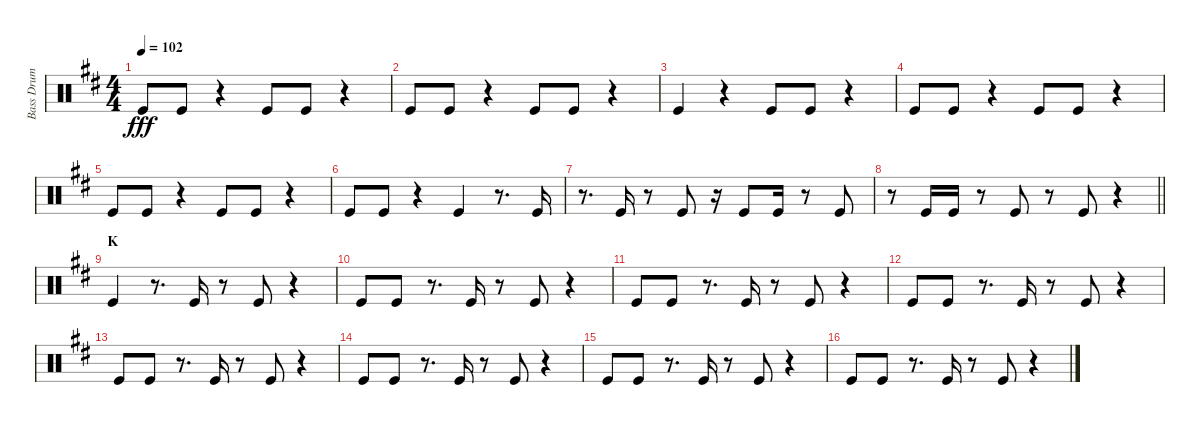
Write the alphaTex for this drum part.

\track ("Bass Drum" "Bass Drum") {instrument percussion}
\staff {score}
\articulation defaults
\ts (4 4)
\tempo 102
\clef neutral
\ks d "Kick (hit)".8{dy fff} "Kick (hit)".8
r.4 "Kick (hit)".8 "Kick (hit)".8 r.4 |
"Kick (hit)".8 "Kick (hit)".8 r.4 "Kick (hit)".8 "Kick (hit)".8 r.4 |
"Kick (hit)".4 r.4 "Kick (hit)".8 "Kick (hit)".8 r.4 |
"Kick (hit)".8 "Kick (hit)".8 r.4 "Kick (hit)".8 "Kick (hit)".8 r.4 |
"Kick (hit)".8 "Kick (hit)".8 r.4 "Kick (hit)".8 "Kick (hit)".8 r.4 |
"Kick (hit)".8 "Kick (hit)".8 r.4 "Kick (hit)".4 r.8{d} "Kick (hit)".16 |
r.8{d} "Kick (hit)".16 r.8 "Kick (hit)".8 r.16 "Kick (hit)".8 "Kick (hit)".16 r.8 "Kick (hit)".8 |
\barLineRight lightlight
r.8 "Kick (hit)".16 "Kick (hit)".16 r.8 "Kick (hit)".8 r.8 "Kick (hit)".8 r.4 |
\section ("" "K")
"Kick (hit)".4 r.8{d} "Kick (hit)".16 r.8 "Kick (hit)".8 r.4 |
"Kick (hit)".8 "Kick (hit)".8 r.8{d} "Kick (hit)".16 r.8 "Kick (hit)".8 r.4 |
"Kick (hit)".8 "Kick (hit)".8 r.8{d} "Kick (hit)".16 r.8 "Kick (hit)".8 r.4 |
"Kick (hit)".8 "Kick (hit)".8 r.8{d} "Kick (hit)".16 r.8 "Kick (hit)".8 r.4 |
"Kick (hit)".8 "Kick (hit)".8 r.8{d} "Kick (hit)".16 r.8 "Kick (hit)".8 r.4 |
"Kick (hit)".8 "Kick (hit)".8 r.8{d} "Kick (hit)".16 r.8 "Kick (hit)".8 r.4 |
"Kick (hit)".8 "Kick (hit)".8 r.8{d} "Kick (hit)".16 r.8 "Kick (hit)".8 r.4 |
"Kick (hit)".8 "Kick (hit)".8 r.8{d} "Kick (hit)".16 r.8 "Kick (hit)".8 r.4
